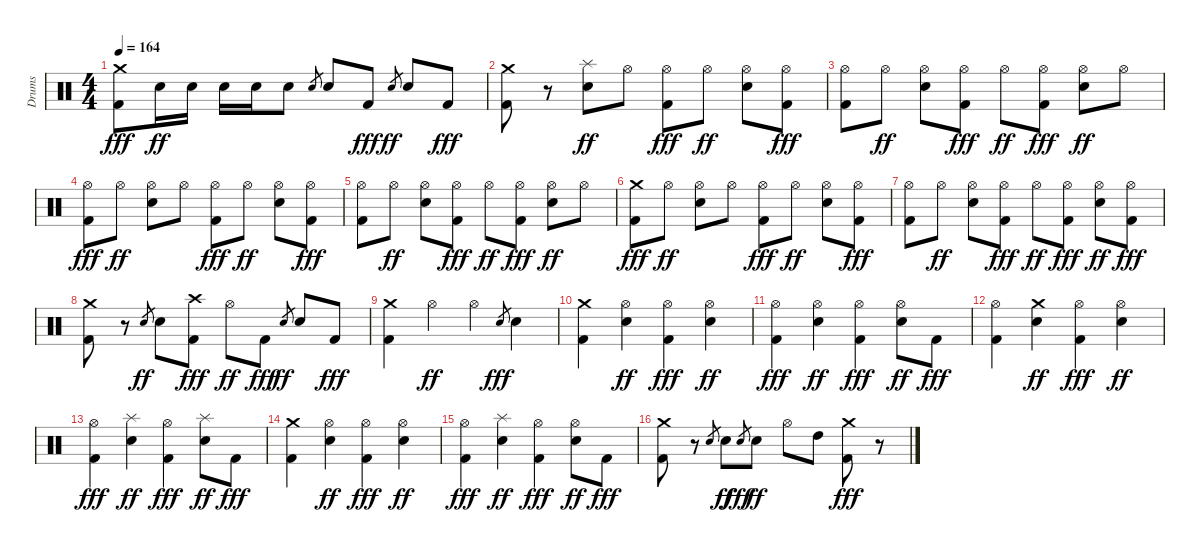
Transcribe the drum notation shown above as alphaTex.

\track ("Drums" "Drums") {instrument percussion}
\staff {score}
\articulation defaults
\ts (4 4)
\tempo 164
\clef neutral
\ks c
("Crash medium (hit)" "Kick (hit) 2").8{dy fff} "Snare (hit) 2".16{dy ff} "Snare (hit) 2".16 "Snare (hit) 2".16 "Snare (hit) 2".16 "Snare (hit) 2".8 "Snare (hit) 2".8{gr} "Snare (hit) 2".8 "Kick (hit) 2".8{dy fff} "Snare (hit) 2".8{gr dy ff} "Snare (hit) 2".8 "Kick (hit) 2".8{dy fff} |
("Crash medium (hit)" "Kick (hit) 2").8 r.8 ("Splash (hit)" "Snare (hit) 2").8{dy ff} "Hi-Hat (open)".8 ("Hi-Hat (open)" "Kick (hit) 2").8{dy fff} "Hi-Hat (open)".8{dy ff} ("Hi-Hat (open)" "Snare (hit) 2").8 ("Hi-Hat (open)" "Kick (hit) 2").8{dy fff} |
("Hi-Hat (open)" "Kick (hit) 2").8 "Hi-Hat (open)".8{dy ff} ("Hi-Hat (open)" "Snare (hit) 2").8 ("Hi-Hat (open)" "Kick (hit) 2").8{dy fff} "Hi-Hat (open)".8{dy ff} ("Hi-Hat (open)" "Kick (hit) 2").8{dy fff} ("Hi-Hat (open)" "Snare (hit) 2").8{dy ff} "Hi-Hat (open)".8 |
("Hi-Hat (open)" "Kick (hit) 2").8{dy fff} "Hi-Hat (open)".8{dy ff} ("Hi-Hat (open)" "Snare (hit) 2").8 "Hi-Hat (open)".8 ("Hi-Hat (open)" "Kick (hit) 2").8{dy fff} "Hi-Hat (open)".8{dy ff} ("Hi-Hat (open)" "Snare (hit) 2").8 ("Hi-Hat (open)" "Kick (hit) 2").8{dy fff} |
("Hi-Hat (open)" "Kick (hit) 2").8 "Hi-Hat (open)".8{dy ff} ("Hi-Hat (open)" "Snare (hit) 2").8 ("Hi-Hat (open)" "Kick (hit) 2").8{dy fff} "Hi-Hat (open)".8{dy ff} ("Hi-Hat (open)" "Kick (hit) 2").8{dy fff} ("Hi-Hat (open)" "Snare (hit) 2").8{dy ff} "Hi-Hat (open)".8 |
("Crash medium (hit)" "Kick (hit) 2").8{dy fff} "Hi-Hat (open)".8{dy ff} ("Hi-Hat (open)" "Snare (hit) 2").8 "Hi-Hat (open)".8 ("Hi-Hat (open)" "Kick (hit) 2").8{dy fff} "Hi-Hat (open)".8{dy ff} ("Hi-Hat (open)" "Snare (hit) 2").8 ("Hi-Hat (open)" "Kick (hit) 2").8{dy fff} |
("Hi-Hat (open)" "Kick (hit) 2").8 "Hi-Hat (open)".8{dy ff} ("Hi-Hat (open)" "Snare (hit) 2").8 ("Hi-Hat (open)" "Kick (hit) 2").8{dy fff} "Hi-Hat (open)".8{dy ff} ("Hi-Hat (open)" "Kick (hit) 2").8{dy fff} ("Hi-Hat (open)" "Snare (hit) 2").8{dy ff} ("Hi-Hat (open)" "Kick (hit) 2").8{dy fff} |
("Crash medium (hit)" "Kick (hit) 2").8 r.8 "Snare (hit) 2".8{gr dy ff} "Snare (hit) 2".8 ("Crash high (hit)" "Kick (hit) 2").8{dy fff} "Hi-Hat (open)".8{dy ff} "Kick (hit) 2".8{dy fff} "Snare (hit) 2".8{gr dy ff} "Snare (hit) 2".8 "Kick (hit) 2".8{dy fff} |
("Crash medium (hit)" "Kick (hit) 2").4 "Hi-Hat (open)".4{dy ff} "Hi-Hat (open)".4 "Snare (hit) 2".8{gr dy fff} "Snare (hit) 2".4 |
("Crash medium (hit)" "Kick (hit) 2").4 ("Hi-Hat (open)" "Snare (hit) 2").4{dy ff} ("Hi-Hat (open)" "Kick (hit) 2").4{dy fff} ("Hi-Hat (open)" "Snare (hit) 2").4{dy ff} |
("Hi-Hat (open)" "Kick (hit) 2").4{dy fff} ("Hi-Hat (open)" "Snare (hit) 2").4{dy ff} ("Hi-Hat (open)" "Kick (hit) 2").4{dy fff} ("Hi-Hat (open)" "Snare (hit) 2").8{dy ff} "Kick (hit) 2".8{dy fff} |
("Hi-Hat (open)" "Kick (hit) 2").4 ("Crash medium (hit)" "Snare (hit) 2").4{dy ff} ("Hi-Hat (open)" "Kick (hit) 2").4{dy fff} ("Hi-Hat (open)" "Snare (hit) 2").4{dy ff} |
("Hi-Hat (open)" "Kick (hit) 2").4{dy fff} ("Splash (hit)" "Snare (hit) 2").4{dy ff} ("Hi-Hat (open)" "Kick (hit) 2").4{dy fff} ("Splash (hit)" "Snare (hit) 2").8{dy ff} "Kick (hit) 2".8{dy fff} |
("Crash medium (hit)" "Kick (hit) 2").4 ("Hi-Hat (open)" "Snare (hit) 2").4{dy ff} ("Hi-Hat (open)" "Kick (hit) 2").4{dy fff} ("Hi-Hat (open)" "Snare (hit) 2").4{dy ff} |
("Hi-Hat (open)" "Kick (hit) 2").4{dy fff} ("Splash (hit)" "Snare (hit) 2").4{dy ff} ("Hi-Hat (open)" "Kick (hit) 2").4{dy fff} ("Hi-Hat (open)" "Snare (hit) 2").8{dy ff} "Kick (hit) 2".8{dy fff} |
("Crash medium (hit)" "Kick (hit) 2").8 r.8 "Snare (hit) 2".8{gr} "Snare (hit) 2".8{dy ff} "Snare (hit) 2".8{gr dy fff} "Snare (hit) 2".8{dy ff} "Hi-Hat (open)".8 "High Tom (hit)".8 ("Crash medium (hit)" "Kick (hit) 2").8{dy fff} r.8
